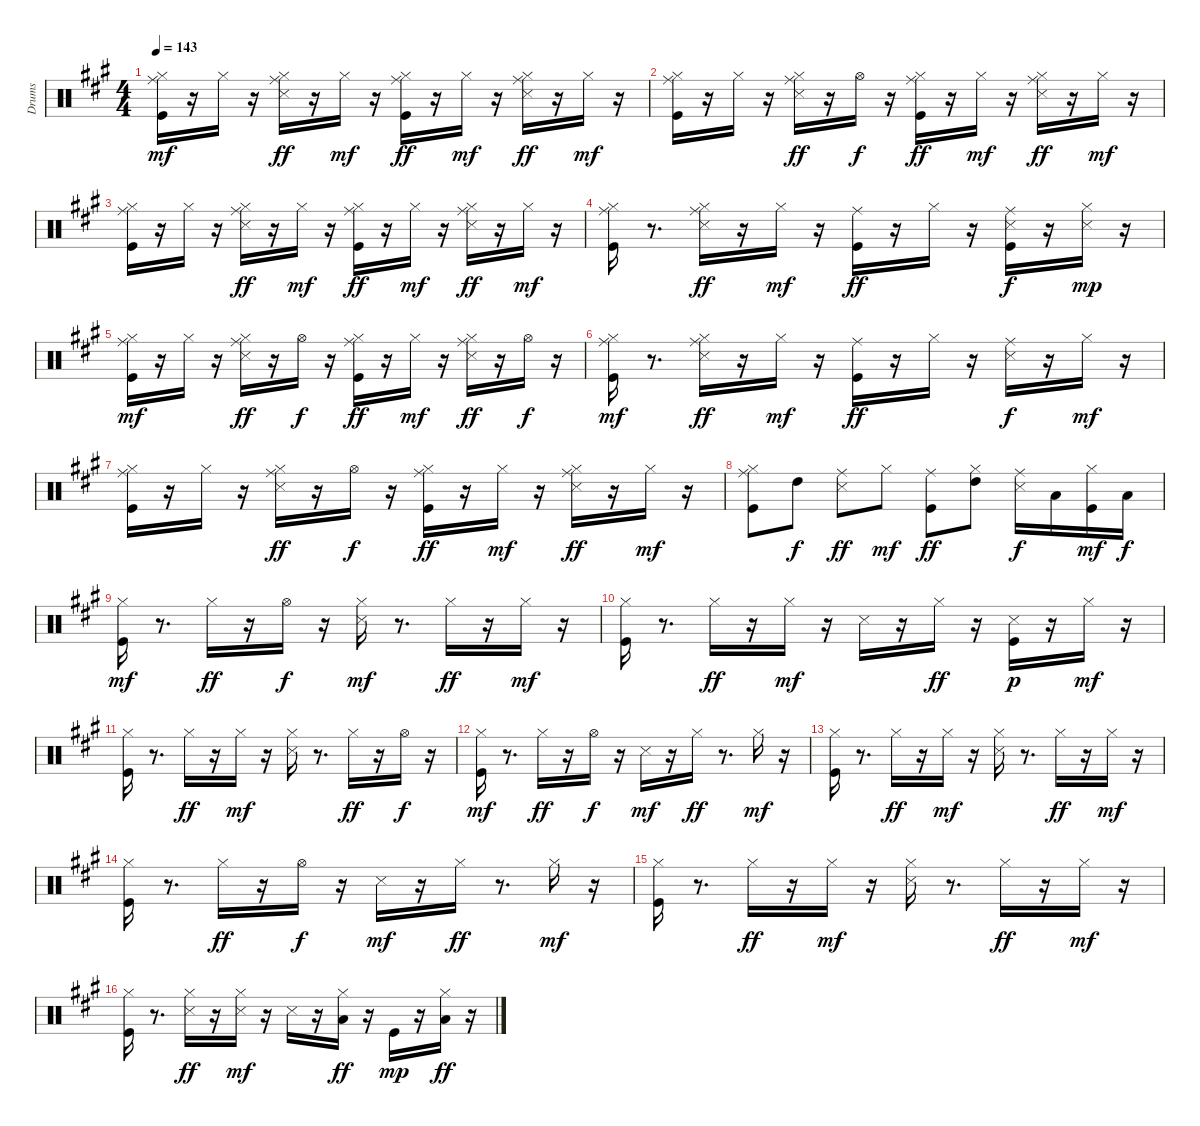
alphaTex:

\track ("Drums" "Drums") {instrument percussion}
\staff {score}
\articulation defaults
\ts (4 4)
\tempo 143
\clef neutral
\ks a
("Kick (hit)" "Hi-Hat (closed)" "Ride (middle)").16{dy mf} r.16 "Hi-Hat (closed)".16 r.16 ("Hi-Hat (closed)" "Snare (side stick) 3" "Ride (middle)").16{dy ff} r.16 "Hi-Hat (closed)".16{dy mf} r.16 ("Kick (hit)" "Hi-Hat (closed)" "Ride (middle)").16{dy ff} r.16 "Hi-Hat (closed)".16{dy mf} r.16 ("Hi-Hat (closed)" "Snare (side stick) 3" "Ride (middle)").16{dy ff} r.16 "Hi-Hat (closed)".16{dy mf} r.16 |
("Kick (hit)" "Hi-Hat (closed)" "Ride (middle)").16 r.16 "Hi-Hat (closed)".16 r.16 ("Hi-Hat (closed)" "Snare (side stick) 3" "Ride (middle)").16{dy ff} r.16 "Hi-Hat (open)".16{dy f} r.16 ("Kick (hit)" "Hi-Hat (closed)" "Ride (middle)").16{dy ff} r.16 "Hi-Hat (closed)".16{dy mf} r.16 ("Hi-Hat (closed)" "Snare (side stick) 3" "Ride (middle)").16{dy ff} r.16 "Hi-Hat (closed)".16{dy mf} r.16 |
("Kick (hit)" "Hi-Hat (closed)" "Ride (middle)").16 r.16 "Hi-Hat (closed)".16 r.16 ("Hi-Hat (closed)" "Snare (side stick) 3" "Ride (middle)").16{dy ff} r.16 "Hi-Hat (closed)".16{dy mf} r.16 ("Kick (hit)" "Hi-Hat (closed)" "Ride (middle)").16{dy ff} r.16 "Hi-Hat (closed)".16{dy mf} r.16 ("Hi-Hat (closed)" "Snare (side stick) 3" "Ride (middle)").16{dy ff} r.16 "Hi-Hat (closed)".16{dy mf} r.16 |
("Kick (hit)" "Hi-Hat (closed)" "Ride (middle)").16 r.8{d} ("Hi-Hat (closed)" "Snare (side stick) 3" "Ride (middle)").16{dy ff} r.16 "Hi-Hat (closed)".16{dy mf} r.16 ("Kick (hit)" "Ride (middle)").16{dy ff} r.16 "Hi-Hat (closed)".16 r.16 ("Kick (hit)" "Snare (side stick) 3" "Ride (middle)").16{dy f} r.16 ("Hi-Hat (closed)" "Snare (side stick) 3").16{dy mp} r.16 |
("Kick (hit)" "Hi-Hat (closed)" "Ride (middle)").16{dy mf} r.16 "Hi-Hat (closed)".16 r.16 ("Hi-Hat (closed)" "Snare (side stick) 3" "Ride (middle)").16{dy ff} r.16 "Hi-Hat (open)".16{dy f} r.16 ("Kick (hit)" "Hi-Hat (closed)" "Ride (middle)").16{dy ff} r.16 "Hi-Hat (closed)".16{dy mf} r.16 ("Hi-Hat (closed)" "Snare (side stick) 3" "Ride (middle)").16{dy ff} r.16 "Hi-Hat (open)".16{dy f} r.16 |
("Kick (hit)" "Hi-Hat (closed)" "Ride (middle)").16{dy mf} r.8{d} ("Hi-Hat (closed)" "Snare (side stick) 3" "Ride (middle)").16{dy ff} r.16 "Hi-Hat (closed)".16{dy mf} r.16 ("Kick (hit)" "Ride (middle)").16{dy ff} r.16 "Hi-Hat (closed)".16 r.16 ("Snare (side stick) 3" "Ride (middle)").16{dy f} r.16 "Hi-Hat (closed)".16{dy mf} r.16 |
("Kick (hit)" "Hi-Hat (closed)" "Ride (middle)").16 r.16 "Hi-Hat (closed)".16 r.16 ("Hi-Hat (closed)" "Snare (side stick) 3" "Ride (middle)").16{dy ff} r.16 "Hi-Hat (open)".16{dy f} r.16 ("Kick (hit)" "Hi-Hat (closed)" "Ride (middle)").16{dy ff} r.16 "Hi-Hat (closed)".16{dy mf} r.16 ("Hi-Hat (closed)" "Snare (side stick) 3" "Ride (middle)").16{dy ff} r.16 "Hi-Hat (closed)".16{dy mf} r.16 |
("Hi-Hat (closed)" "Ride (middle)" "Kick (hit)").8 "High Tom (hit)".8{dy f} ("Ride (middle)" "Snare (side stick) 3").8{dy ff} "Hi-Hat (closed)".8{dy mf} ("Ride (middle)" "Kick (hit)").8{dy ff} ("Hi-Hat (closed)" "High Tom (hit)").8 ("Ride (middle)" "Snare (side stick) 3").16{dy f} "Low Tom (hit)".16 ("Hi-Hat (closed)" "Kick (hit)").16{dy mf} "Low Floor Tom (hit)".16{dy f} |
("Kick (hit)" "Hi-Hat (closed)").16{dy mf} r.8{d} "Hi-Hat (closed)".16{dy ff} r.16 "Hi-Hat (open)".16{dy f} r.16 ("Hi-Hat (closed)" "Snare (side stick) 3").16{dy mf} r.8{d} "Hi-Hat (closed)".16{dy ff} r.16 "Hi-Hat (closed)".16{dy mf} r.16 |
("Kick (hit)" "Hi-Hat (closed)").16 r.8{d} "Hi-Hat (closed)".16{dy ff} r.16 "Hi-Hat (closed)".16{dy mf} r.16 "Snare (side stick) 3".16 r.16 "Hi-Hat (closed)".16{dy ff} r.16 ("Kick (hit)" "Snare (side stick) 3").16{dy p} r.16 "Hi-Hat (closed)".16{dy mf} r.16 |
("Kick (hit)" "Hi-Hat (closed)").16 r.8{d} "Hi-Hat (closed)".16{dy ff} r.16 "Hi-Hat (closed)".16{dy mf} r.16 ("Hi-Hat (closed)" "Snare (side stick) 3").16 r.8{d} "Hi-Hat (closed)".16{dy ff} r.16 "Hi-Hat (open)".16{dy f} r.16 |
("Kick (hit)" "Hi-Hat (closed)").16{dy mf} r.8{d} "Hi-Hat (closed)".16{dy ff} r.16 "Hi-Hat (open)".16{dy f} r.16 "Snare (side stick) 3".16{dy mf} r.16 "Hi-Hat (closed)".16{dy ff} r.8{d} "Hi-Hat (closed)".16{dy mf} r.16 |
("Kick (hit)" "Hi-Hat (closed)").16 r.8{d} "Hi-Hat (closed)".16{dy ff} r.16 "Hi-Hat (closed)".16{dy mf} r.16 ("Hi-Hat (closed)" "Snare (side stick) 3").16 r.8{d} "Hi-Hat (closed)".16{dy ff} r.16 "Hi-Hat (closed)".16{dy mf} r.16 |
("Kick (hit)" "Hi-Hat (closed)").16 r.8{d} "Hi-Hat (closed)".16{dy ff} r.16 "Hi-Hat (open)".16{dy f} r.16 "Snare (side stick) 3".16{dy mf} r.16 "Hi-Hat (closed)".16{dy ff} r.8{d} "Hi-Hat (closed)".16{dy mf} r.16 |
("Kick (hit)" "Hi-Hat (closed)").16 r.8{d} "Hi-Hat (closed)".16{dy ff} r.16 "Hi-Hat (closed)".16{dy mf} r.16 ("Hi-Hat (closed)" "Snare (side stick) 3").16 r.8{d} "Hi-Hat (closed)".16{dy ff} r.16 "Hi-Hat (closed)".16{dy mf} r.16 |
("Kick (hit)" "Hi-Hat (closed)").16 r.8{d} ("Hi-Hat (closed)" "Snare (side stick) 3").16{dy ff} r.16 ("Hi-Hat (closed)" "Snare (side stick) 3").16{dy mf} r.16 "Snare (side stick) 3".16 r.16 ("Hi-Hat (closed)" "Low Tom (hit)").16{dy ff} r.16 "Kick (hit)".16{dy mp} r.16 ("Hi-Hat (closed)" "Low Floor Tom (hit)").16{dy ff} r.16
